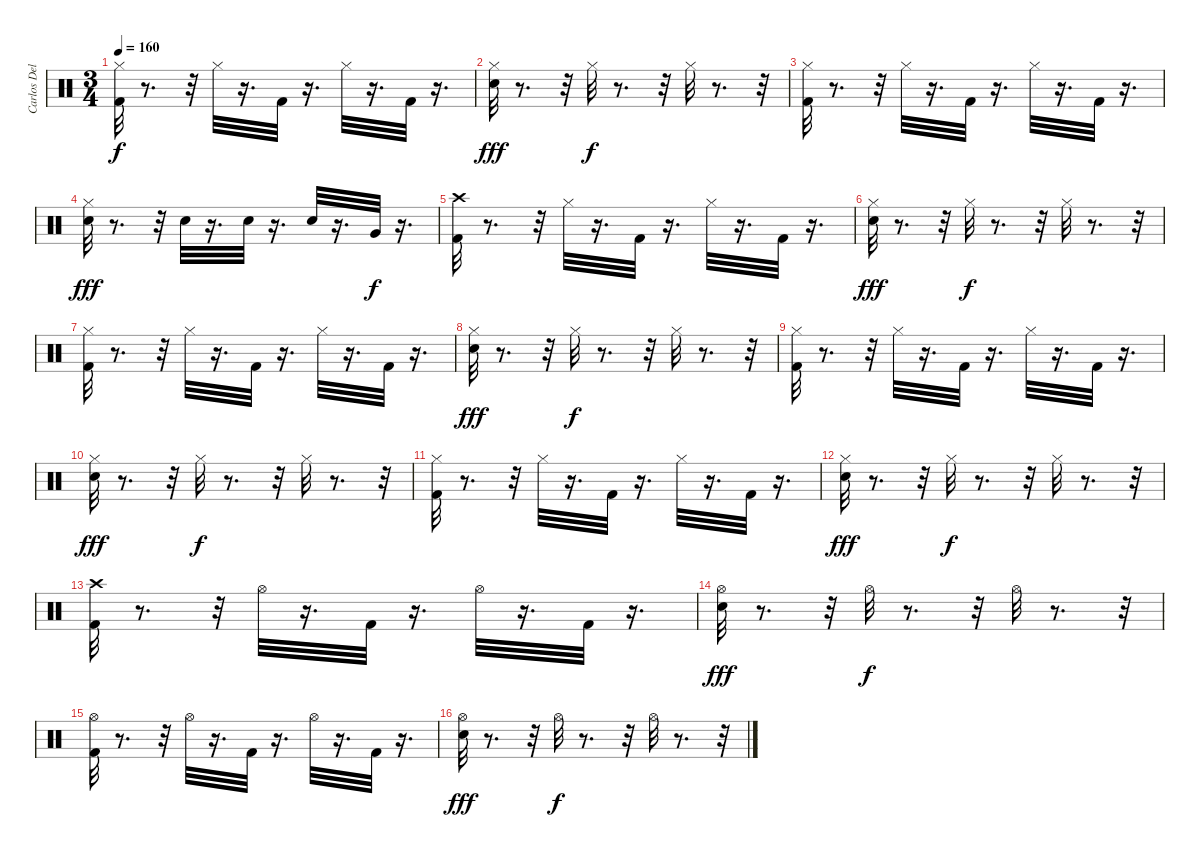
\track ("Carlos Delgado" "Carlos Del") {instrument percussion}
\staff {score}
\articulation defaults
\ts (3 4)
\tempo 160
\clef neutral
\ks c
("Hi-Hat (closed)" "Kick (hit) 2").32{dy f} r.8{d} r.32 "Hi-Hat (closed)".32 r.16{d} "Kick (hit) 2".32 r.16{d} "Hi-Hat (closed)".32 r.16{d} "Kick (hit) 2".32 r.16{d} |
("Electric Snare (hit)" "Hi-Hat (closed)").32{dy fff} r.8{d} r.32 "Hi-Hat (closed)".32{dy f} r.8{d} r.32 "Hi-Hat (closed)".32 r.8{d} r.32 |
("Hi-Hat (closed)" "Kick (hit) 2").32 r.8{d} r.32 "Hi-Hat (closed)".32 r.16{d} "Kick (hit) 2".32 r.16{d} "Hi-Hat (closed)".32 r.16{d} "Kick (hit) 2".32 r.16{d} |
("Electric Snare (hit)" "Hi-Hat (closed)").32{dy fff} r.8{d} r.32 "Electric Snare (hit)".32 r.16{d} "Electric Snare (hit)".32 r.16{d} "Electric Snare (hit)".32 r.16{d} "Very Low Tom (hit)".32{dy f} r.16{d} |
("Crash high (hit)" "Kick (hit) 2").32 r.8{d} r.32 "Hi-Hat (closed)".32 r.16{d} "Kick (hit) 2".32 r.16{d} "Hi-Hat (closed)".32 r.16{d} "Kick (hit) 2".32 r.16{d} |
("Electric Snare (hit)" "Hi-Hat (closed)").32{dy fff} r.8{d} r.32 "Hi-Hat (closed)".32{dy f} r.8{d} r.32 "Hi-Hat (closed)".32 r.8{d} r.32 |
("Hi-Hat (closed)" "Kick (hit) 2").32 r.8{d} r.32 "Hi-Hat (closed)".32 r.16{d} "Kick (hit) 2".32 r.16{d} "Hi-Hat (closed)".32 r.16{d} "Kick (hit) 2".32 r.16{d} |
("Electric Snare (hit)" "Hi-Hat (closed)").32{dy fff} r.8{d} r.32 "Hi-Hat (closed)".32{dy f} r.8{d} r.32 "Hi-Hat (closed)".32 r.8{d} r.32 |
("Hi-Hat (closed)" "Kick (hit) 2").32 r.8{d} r.32 "Hi-Hat (closed)".32 r.16{d} "Kick (hit) 2".32 r.16{d} "Hi-Hat (closed)".32 r.16{d} "Kick (hit) 2".32 r.16{d} |
("Electric Snare (hit)" "Hi-Hat (closed)").32{dy fff} r.8{d} r.32 "Hi-Hat (closed)".32{dy f} r.8{d} r.32 "Hi-Hat (closed)".32 r.8{d} r.32 |
("Hi-Hat (closed)" "Kick (hit) 2").32 r.8{d} r.32 "Hi-Hat (closed)".32 r.16{d} "Kick (hit) 2".32 r.16{d} "Hi-Hat (closed)".32 r.16{d} "Kick (hit) 2".32 r.16{d} |
("Electric Snare (hit)" "Hi-Hat (closed)").32{dy fff} r.8{d} r.32 "Hi-Hat (closed)".32{dy f} r.8{d} r.32 "Hi-Hat (closed)".32 r.8{d} r.32 |
("Crash high (hit)" "Kick (hit) 2").32 r.8{d} r.32 "Hi-Hat (open)".32 r.16{d} "Kick (hit) 2".32 r.16{d} "Hi-Hat (open)".32 r.16{d} "Kick (hit) 2".32 r.16{d} |
("Electric Snare (hit)" "Hi-Hat (open)").32{dy fff} r.8{d} r.32 "Hi-Hat (open)".32{dy f} r.8{d} r.32 "Hi-Hat (open)".32 r.8{d} r.32 |
("Kick (hit) 2" "Hi-Hat (open)").32 r.8{d} r.32 "Hi-Hat (open)".32 r.16{d} "Kick (hit) 2".32 r.16{d} "Hi-Hat (open)".32 r.16{d} "Kick (hit) 2".32 r.16{d} |
("Hi-Hat (open)" "Electric Snare (hit)").32{dy fff} r.8{d} r.32 "Hi-Hat (open)".32{dy f} r.8{d} r.32 "Hi-Hat (open)".32 r.8{d} r.32
